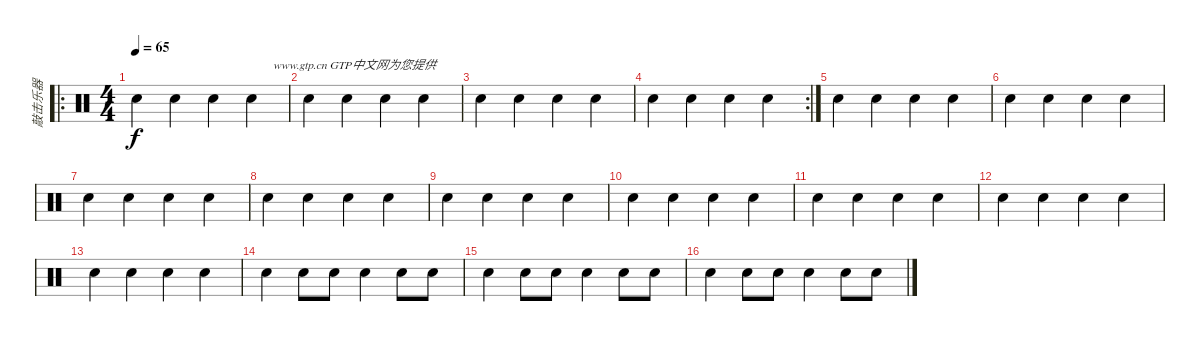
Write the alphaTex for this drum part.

\track ("敲击乐器" "敲击乐器") {instrument percussion}
\staff {score}
\articulation defaults
\ro
\ts (4 4)
\tempo 65
\clef neutral
\ks c "Snare (hit) 2".4{dy f} "Snare (hit) 2".4 "Snare (hit) 2".4{txt "                    www.gtp.cn GTP中文网为您提供"} "Snare (hit) 2".4
|
"Snare (hit) 2".4 "Snare (hit) 2".4 "Snare (hit) 2".4 "Snare (hit) 2".4 |
"Snare (hit) 2".4 "Snare (hit) 2".4 "Snare (hit) 2".4 "Snare (hit) 2".4 |
\rc 2 "Snare (hit) 2".4 "Snare (hit) 2".4 "Snare (hit) 2".4 "Snare (hit) 2".4
|
"Snare (hit) 2".4 "Snare (hit) 2".4 "Snare (hit) 2".4 "Snare (hit) 2".4 |
"Snare (hit) 2".4 "Snare (hit) 2".4 "Snare (hit) 2".4 "Snare (hit) 2".4 |
"Snare (hit) 2".4 "Snare (hit) 2".4 "Snare (hit) 2".4 "Snare (hit) 2".4 |
"Snare (hit) 2".4 "Snare (hit) 2".4 "Snare (hit) 2".4 "Snare (hit) 2".4 |
"Snare (hit) 2".4 "Snare (hit) 2".4 "Snare (hit) 2".4 "Snare (hit) 2".4 |
"Snare (hit) 2".4 "Snare (hit) 2".4 "Snare (hit) 2".4 "Snare (hit) 2".4 |
"Snare (hit) 2".4 "Snare (hit) 2".4 "Snare (hit) 2".4 "Snare (hit) 2".4 |
"Snare (hit) 2".4 "Snare (hit) 2".4 "Snare (hit) 2".4 "Snare (hit) 2".4 |
"Snare (hit) 2".4 "Snare (hit) 2".4 "Snare (hit) 2".4 "Snare (hit) 2".4 |
"Snare (hit) 2".4 "Snare (hit) 2".8 "Snare (hit) 2".8 "Snare (hit) 2".4 "Snare (hit) 2".8 "Snare (hit) 2".8 |
"Snare (hit) 2".4 "Snare (hit) 2".8 "Snare (hit) 2".8 "Snare (hit) 2".4 "Snare (hit) 2".8 "Snare (hit) 2".8 |
"Snare (hit) 2".4 "Snare (hit) 2".8 "Snare (hit) 2".8 "Snare (hit) 2".4 "Snare (hit) 2".8 "Snare (hit) 2".8
